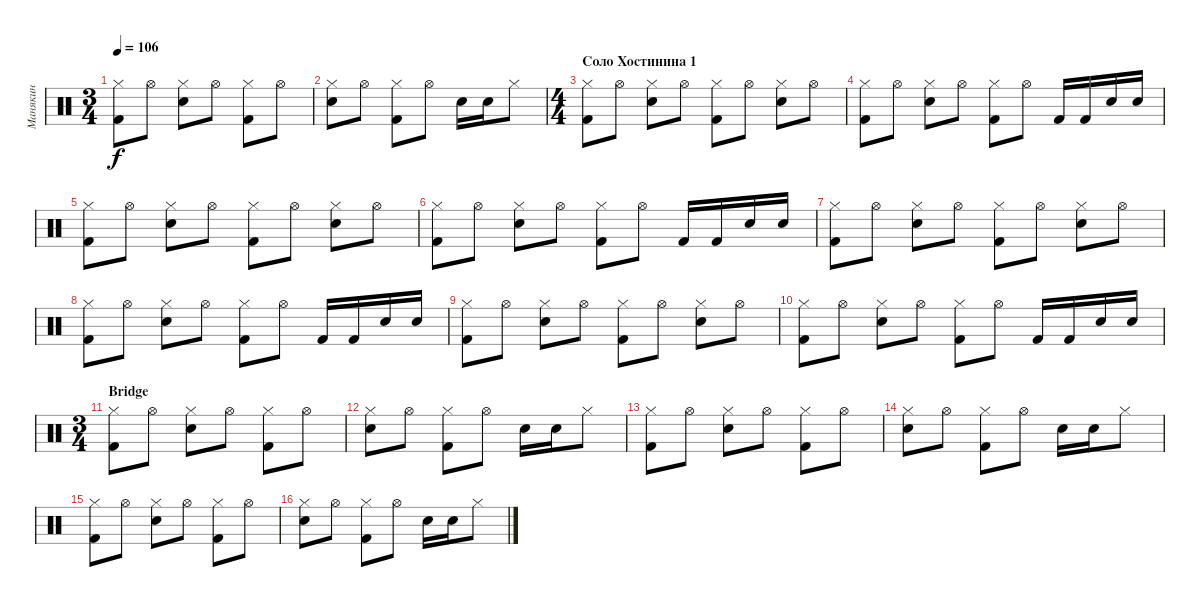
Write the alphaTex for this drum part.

\track ("Манякин" "Манякин") {instrument percussion}
\staff {score}
\articulation defaults
\ts (3 4)
\tempo 106
\clef neutral
\ks c
("Hi-Hat (closed)" "Kick (hit) 2").8{dy f} "Hi-Hat (open)".8 ("Hi-Hat (closed)" "Electric Snare (hit)").8 "Hi-Hat (open)".8 ("Hi-Hat (closed)" "Kick (hit) 2").8 "Hi-Hat (open)".8 |
("Hi-Hat (closed)" "Electric Snare (hit)").8 "Hi-Hat (open)".8 ("Hi-Hat (closed)" "Kick (hit) 2").8 "Hi-Hat (open)".8 "Electric Snare (hit)".16 "Electric Snare (hit)".16 "Hi-Hat (closed)".8 |
\ts (4 4)
\section ("" "Соло Хостинина 1")
("Hi-Hat (closed)" "Kick (hit) 2").8 "Hi-Hat (open)".8 ("Hi-Hat (closed)" "Electric Snare (hit)").8 "Hi-Hat (open)".8 ("Hi-Hat (closed)" "Kick (hit) 2").8 "Hi-Hat (open)".8 ("Hi-Hat (closed)" "Electric Snare (hit)").8 "Hi-Hat (open)".8 |
("Hi-Hat (closed)" "Kick (hit) 2").8 "Hi-Hat (open)".8 ("Hi-Hat (closed)" "Electric Snare (hit)").8 "Hi-Hat (open)".8 ("Hi-Hat (closed)" "Kick (hit) 2").8 "Hi-Hat (open)".8 "Kick (hit) 2".16 "Kick (hit) 2".16 "Electric Snare (hit)".16 "Electric Snare (hit)".16 |
("Hi-Hat (closed)" "Kick (hit) 2").8 "Hi-Hat (open)".8 ("Hi-Hat (closed)" "Electric Snare (hit)").8 "Hi-Hat (open)".8 ("Hi-Hat (closed)" "Kick (hit) 2").8 "Hi-Hat (open)".8 ("Hi-Hat (closed)" "Electric Snare (hit)").8 "Hi-Hat (open)".8 |
("Hi-Hat (closed)" "Kick (hit) 2").8 "Hi-Hat (open)".8 ("Hi-Hat (closed)" "Electric Snare (hit)").8 "Hi-Hat (open)".8 ("Hi-Hat (closed)" "Kick (hit) 2").8 "Hi-Hat (open)".8 "Kick (hit) 2".16 "Kick (hit) 2".16 "Electric Snare (hit)".16 "Electric Snare (hit)".16 |
("Hi-Hat (closed)" "Kick (hit) 2").8 "Hi-Hat (open)".8 ("Hi-Hat (closed)" "Electric Snare (hit)").8 "Hi-Hat (open)".8 ("Hi-Hat (closed)" "Kick (hit) 2").8 "Hi-Hat (open)".8 ("Hi-Hat (closed)" "Electric Snare (hit)").8 "Hi-Hat (open)".8 |
("Hi-Hat (closed)" "Kick (hit) 2").8 "Hi-Hat (open)".8 ("Hi-Hat (closed)" "Electric Snare (hit)").8 "Hi-Hat (open)".8 ("Hi-Hat (closed)" "Kick (hit) 2").8 "Hi-Hat (open)".8 "Kick (hit) 2".16 "Kick (hit) 2".16 "Electric Snare (hit)".16 "Electric Snare (hit)".16 |
("Hi-Hat (closed)" "Kick (hit) 2").8 "Hi-Hat (open)".8 ("Hi-Hat (closed)" "Electric Snare (hit)").8 "Hi-Hat (open)".8 ("Hi-Hat (closed)" "Kick (hit) 2").8 "Hi-Hat (open)".8 ("Hi-Hat (closed)" "Electric Snare (hit)").8 "Hi-Hat (open)".8 |
("Hi-Hat (closed)" "Kick (hit) 2").8 "Hi-Hat (open)".8 ("Hi-Hat (closed)" "Electric Snare (hit)").8 "Hi-Hat (open)".8 ("Hi-Hat (closed)" "Kick (hit) 2").8 "Hi-Hat (open)".8 "Kick (hit) 2".16 "Kick (hit) 2".16 "Electric Snare (hit)".16 "Electric Snare (hit)".16 |
\ts (3 4)
\section ("" "Bridge")
("Hi-Hat (closed)" "Kick (hit) 2").8 "Hi-Hat (open)".8 ("Hi-Hat (closed)" "Electric Snare (hit)").8 "Hi-Hat (open)".8 ("Hi-Hat (closed)" "Kick (hit) 2").8 "Hi-Hat (open)".8 |
("Hi-Hat (closed)" "Electric Snare (hit)").8 "Hi-Hat (open)".8 ("Hi-Hat (closed)" "Kick (hit) 2").8 "Hi-Hat (open)".8 "Electric Snare (hit)".16 "Electric Snare (hit)".16 "Hi-Hat (closed)".8 |
("Hi-Hat (closed)" "Kick (hit) 2").8 "Hi-Hat (open)".8 ("Hi-Hat (closed)" "Electric Snare (hit)").8 "Hi-Hat (open)".8 ("Hi-Hat (closed)" "Kick (hit) 2").8 "Hi-Hat (open)".8 |
("Hi-Hat (closed)" "Electric Snare (hit)").8 "Hi-Hat (open)".8 ("Hi-Hat (closed)" "Kick (hit) 2").8 "Hi-Hat (open)".8 "Electric Snare (hit)".16 "Electric Snare (hit)".16 "Hi-Hat (closed)".8 |
("Hi-Hat (closed)" "Kick (hit) 2").8 "Hi-Hat (open)".8 ("Hi-Hat (closed)" "Electric Snare (hit)").8 "Hi-Hat (open)".8 ("Hi-Hat (closed)" "Kick (hit) 2").8 "Hi-Hat (open)".8 |
("Hi-Hat (closed)" "Electric Snare (hit)").8 "Hi-Hat (open)".8 ("Hi-Hat (closed)" "Kick (hit) 2").8 "Hi-Hat (open)".8 "Electric Snare (hit)".16 "Electric Snare (hit)".16 "Hi-Hat (closed)".8
